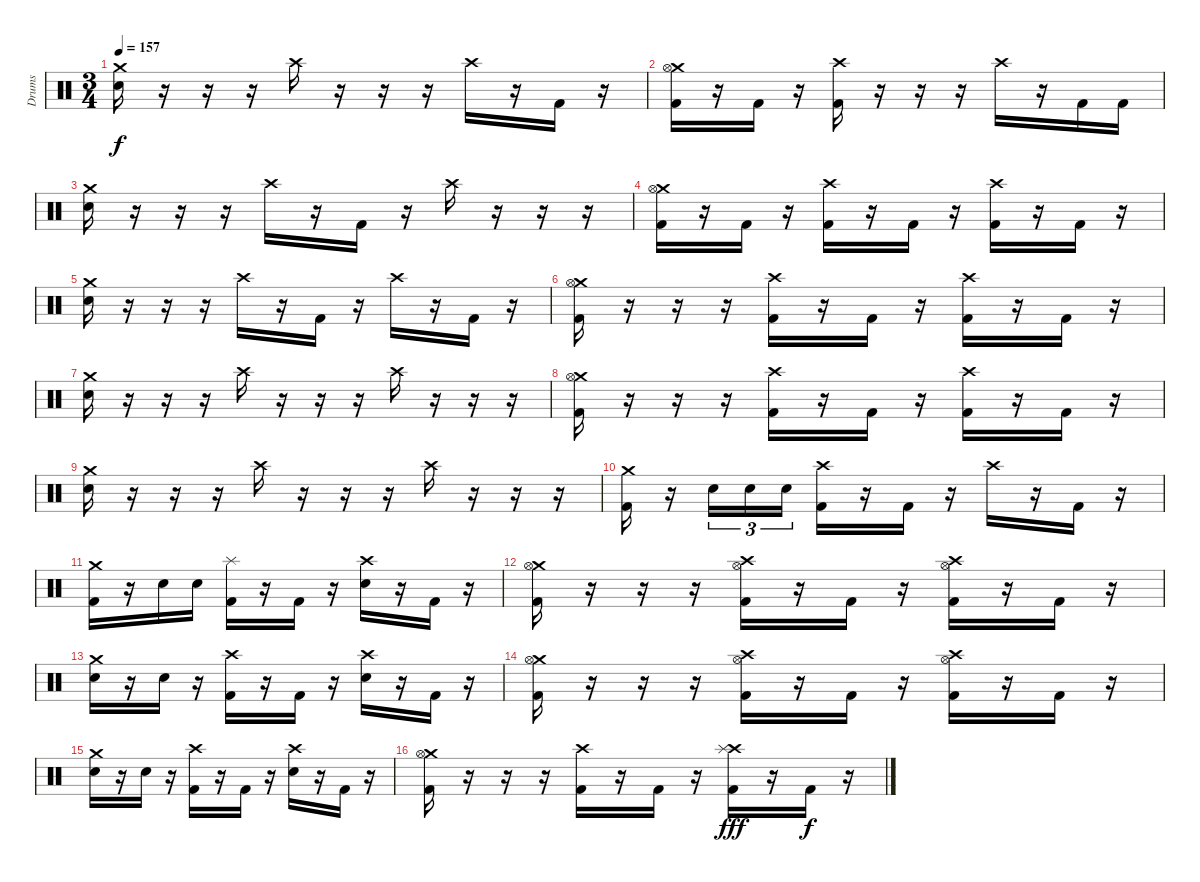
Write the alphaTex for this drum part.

\track ("Drums" "Drums") {instrument percussion}
\staff {score}
\articulation defaults
\ts (3 4)
\tempo 157
\clef neutral
\ks c
("Crash medium (hit)" "Snare (hit) 2").16{dy f} r.16 r.16 r.16 "Crash high (hit)".16 r.16 r.16 r.16 "Crash high (hit)".16 r.16 "Kick (hit) 2".16 r.16 |
("Crash medium (hit)" "Hi-Hat (open)" "Kick (hit) 2").16 r.16 "Kick (hit) 2".16 r.16 ("Crash high (hit)" "Kick (hit) 2").16 r.16 r.16 r.16 "Crash high (hit)".16 r.16 "Kick (hit) 2".16 "Kick (hit) 2".16 |
("Crash medium (hit)" "Snare (hit) 2").16 r.16 r.16 r.16 "Crash high (hit)".16 r.16 "Kick (hit) 2".16 r.16 "Crash high (hit)".16 r.16 r.16 r.16 |
("Crash medium (hit)" "Hi-Hat (open)" "Kick (hit) 2").16 r.16 "Kick (hit) 2".16 r.16 ("Crash high (hit)" "Kick (hit) 2").16 r.16 "Kick (hit) 2".16 r.16 ("Crash high (hit)" "Kick (hit) 2").16 r.16 "Kick (hit) 2".16 r.16 |
("Crash medium (hit)" "Snare (hit) 2").16 r.16 r.16 r.16 "Crash high (hit)".16 r.16 "Kick (hit) 2".16 r.16 "Crash high (hit)".16 r.16 "Kick (hit) 2".16 r.16 |
("Crash medium (hit)" "Hi-Hat (open)" "Kick (hit) 2").16 r.16 r.16 r.16 ("Crash high (hit)" "Kick (hit) 2").16 r.16 "Kick (hit) 2".16 r.16 ("Crash high (hit)" "Kick (hit) 2").16 r.16 "Kick (hit) 2".16 r.16 |
("Crash medium (hit)" "Snare (hit) 2").16 r.16 r.16 r.16 "Crash high (hit)".16 r.16 r.16 r.16 "Crash high (hit)".16 r.16 r.16 r.16 |
("Crash medium (hit)" "Hi-Hat (open)" "Kick (hit) 2").16 r.16 r.16 r.16 ("Crash high (hit)" "Kick (hit) 2").16 r.16 "Kick (hit) 2".16 r.16 ("Crash high (hit)" "Kick (hit) 2").16 r.16 "Kick (hit) 2".16 r.16 |
("Crash medium (hit)" "Snare (hit) 2").16 r.16 r.16 r.16 "Crash high (hit)".16 r.16 r.16 r.16 "Crash high (hit)".16 r.16 r.16 r.16 |
("Crash medium (hit)" "Kick (hit) 2").16 r.16 "Snare (hit) 2".16{tu (3 2)} "Snare (hit) 2".16{tu (3 2)} "Snare (hit) 2".16{tu (3 2)} ("Crash high (hit)" "Kick (hit) 2").16 r.16 "Kick (hit) 2".16 r.16 "Crash high (hit)".16 r.16 "Kick (hit) 2".16 r.16 |
("Crash medium (hit)" "Kick (hit) 2").16 r.16 "Snare (hit) 2".16 "Snare (hit) 2".16 ("Splash (hit)" "Kick (hit) 2").16 r.16 "Kick (hit) 2".16 r.16 ("Crash high (hit)" "Snare (hit) 2").16 r.16 "Kick (hit) 2".16 r.16 |
("Crash medium (hit)" "Hi-Hat (open)" "Kick (hit) 2").16 r.16 r.16 r.16 ("Crash high (hit)" "Hi-Hat (open)" "Kick (hit) 2").16 r.16 "Kick (hit) 2".16 r.16 ("Crash high (hit)" "Hi-Hat (open)" "Kick (hit) 2").16 r.16 "Kick (hit) 2".16 r.16 |
("Crash medium (hit)" "Snare (hit) 2").16 r.16 "Snare (hit) 2".16 r.16 ("Crash high (hit)" "Kick (hit) 2").16 r.16 "Kick (hit) 2".16 r.16 ("Crash high (hit)" "Snare (hit) 2").16 r.16 "Kick (hit) 2".16 r.16 |
("Crash medium (hit)" "Hi-Hat (open)" "Kick (hit) 2").16 r.16 r.16 r.16 ("Crash high (hit)" "Hi-Hat (open)" "Kick (hit) 2").16 r.16 "Kick (hit) 2".16 r.16 ("Crash high (hit)" "Hi-Hat (open)" "Kick (hit) 2").16 r.16 "Kick (hit) 2".16 r.16 |
("Crash medium (hit)" "Snare (hit) 2").16 r.16 "Snare (hit) 2".16 r.16 ("Crash high (hit)" "Kick (hit) 2").16 r.16 "Kick (hit) 2".16 r.16 ("Crash high (hit)" "Snare (hit) 2").16 r.16 "Kick (hit) 2".16 r.16 |
("Crash medium (hit)" "Hi-Hat (open)" "Kick (hit) 2").16 r.16 r.16 r.16 ("Crash high (hit)" "Kick (hit) 2").16 r.16 "Kick (hit) 2".16 r.16 ("Crash high (hit)" "Splash (hit)" "Kick (hit) 2").16{dy fff} r.16 "Kick (hit) 2".16{dy f} r.16
